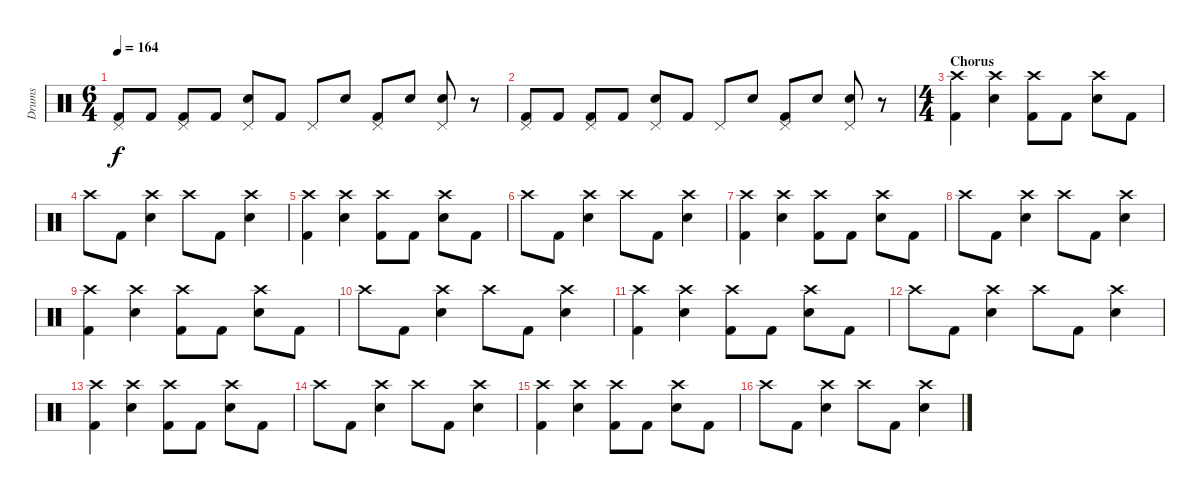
\track ("Drums" "Drums") {instrument percussion}
\staff {score}
\articulation defaults
\ts (6 4)
\tempo 164
\clef neutral
\ks c
("Pedal Hi-Hat (hit)" "Kick (hit) 2").8{dy f} "Kick (hit) 2".8 ("Pedal Hi-Hat (hit)" "Kick (hit) 2").8 "Kick (hit) 2".8 ("Pedal Hi-Hat (hit)" "Electric Snare (hit)").8 "Kick (hit) 2".8 "Pedal Hi-Hat (hit)".8 "Electric Snare (hit)".8 ("Pedal Hi-Hat (hit)" "Kick (hit) 2").8 "Electric Snare (hit)".8 ("Pedal Hi-Hat (hit)" "Electric Snare (hit)").8 r.8 |
("Pedal Hi-Hat (hit)" "Kick (hit) 2").8 "Kick (hit) 2".8 ("Pedal Hi-Hat (hit)" "Kick (hit) 2").8 "Kick (hit) 2".8 ("Pedal Hi-Hat (hit)" "Electric Snare (hit)").8 "Kick (hit) 2".8 "Pedal Hi-Hat (hit)".8 "Electric Snare (hit)".8 ("Pedal Hi-Hat (hit)" "Kick (hit) 2").8 "Electric Snare (hit)".8 ("Pedal Hi-Hat (hit)" "Electric Snare (hit)").8 r.8 |
\ts (4 4)
\section ("" "Chorus")
("Crash high (hit)" "Kick (hit) 2").4 ("Crash high (hit)" "Electric Snare (hit)").4 ("Crash high (hit)" "Kick (hit) 2").8 "Kick (hit) 2".8 ("Crash high (hit)" "Electric Snare (hit)").8 "Kick (hit) 2".8 |
"Crash high (hit)".8 "Kick (hit) 2".8 ("Crash high (hit)" "Electric Snare (hit)").4 "Crash high (hit)".8 "Kick (hit) 2".8 ("Crash high (hit)" "Electric Snare (hit)").4 |
("Crash high (hit)" "Kick (hit) 2").4 ("Crash high (hit)" "Electric Snare (hit)").4 ("Crash high (hit)" "Kick (hit) 2").8 "Kick (hit) 2".8 ("Crash high (hit)" "Electric Snare (hit)").8 "Kick (hit) 2".8 |
"Crash high (hit)".8 "Kick (hit) 2".8 ("Crash high (hit)" "Electric Snare (hit)").4 "Crash high (hit)".8 "Kick (hit) 2".8 ("Crash high (hit)" "Electric Snare (hit)").4 |
("Crash high (hit)" "Kick (hit) 2").4 ("Crash high (hit)" "Electric Snare (hit)").4 ("Crash high (hit)" "Kick (hit) 2").8 "Kick (hit) 2".8 ("Crash high (hit)" "Electric Snare (hit)").8 "Kick (hit) 2".8 |
"Crash high (hit)".8 "Kick (hit) 2".8 ("Crash high (hit)" "Electric Snare (hit)").4 "Crash high (hit)".8 "Kick (hit) 2".8 ("Crash high (hit)" "Electric Snare (hit)").4 |
("Crash high (hit)" "Kick (hit) 2").4 ("Crash high (hit)" "Electric Snare (hit)").4 ("Crash high (hit)" "Kick (hit) 2").8 "Kick (hit) 2".8 ("Crash high (hit)" "Electric Snare (hit)").8 "Kick (hit) 2".8 |
"Crash high (hit)".8 "Kick (hit) 2".8 ("Crash high (hit)" "Electric Snare (hit)").4 "Crash high (hit)".8 "Kick (hit) 2".8 ("Crash high (hit)" "Electric Snare (hit)").4 |
("Crash high (hit)" "Kick (hit) 2").4 ("Crash high (hit)" "Electric Snare (hit)").4 ("Crash high (hit)" "Kick (hit) 2").8 "Kick (hit) 2".8 ("Crash high (hit)" "Electric Snare (hit)").8 "Kick (hit) 2".8 |
"Crash high (hit)".8 "Kick (hit) 2".8 ("Crash high (hit)" "Electric Snare (hit)").4 "Crash high (hit)".8 "Kick (hit) 2".8 ("Crash high (hit)" "Electric Snare (hit)").4 |
("Crash high (hit)" "Kick (hit) 2").4 ("Crash high (hit)" "Electric Snare (hit)").4 ("Crash high (hit)" "Kick (hit) 2").8 "Kick (hit) 2".8 ("Crash high (hit)" "Electric Snare (hit)").8 "Kick (hit) 2".8 |
"Crash high (hit)".8 "Kick (hit) 2".8 ("Crash high (hit)" "Electric Snare (hit)").4 "Crash high (hit)".8 "Kick (hit) 2".8 ("Crash high (hit)" "Electric Snare (hit)").4 |
("Crash high (hit)" "Kick (hit) 2").4 ("Crash high (hit)" "Electric Snare (hit)").4 ("Crash high (hit)" "Kick (hit) 2").8 "Kick (hit) 2".8 ("Crash high (hit)" "Electric Snare (hit)").8 "Kick (hit) 2".8 |
"Crash high (hit)".8 "Kick (hit) 2".8 ("Crash high (hit)" "Electric Snare (hit)").4 "Crash high (hit)".8 "Kick (hit) 2".8 ("Crash high (hit)" "Electric Snare (hit)").4
